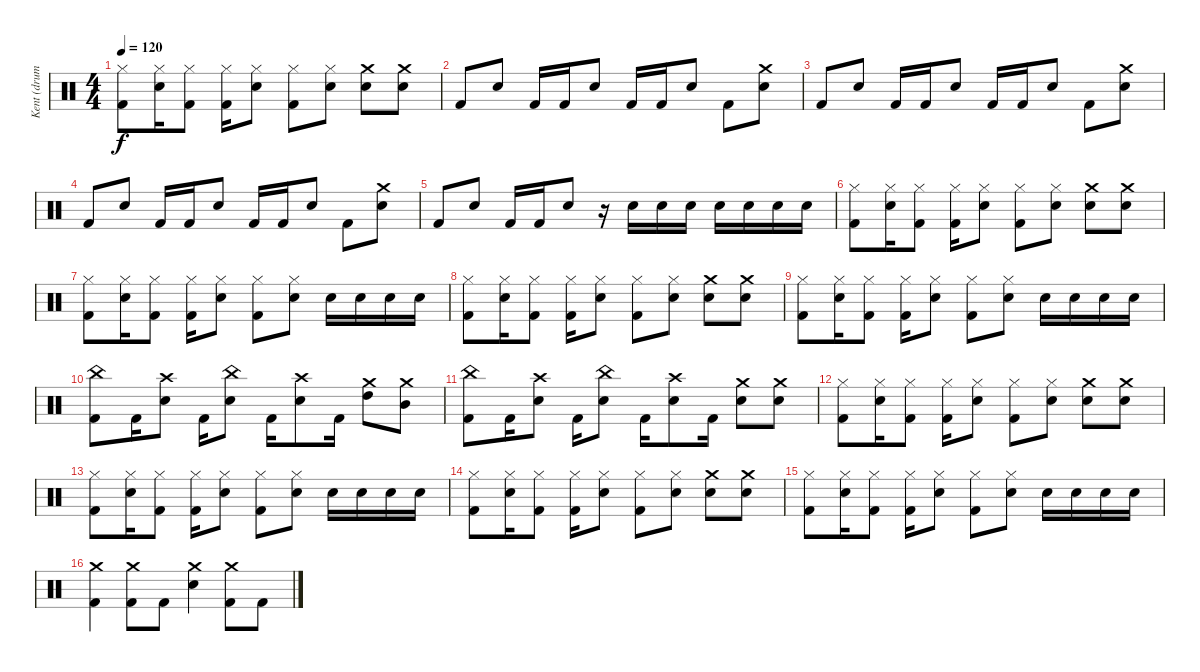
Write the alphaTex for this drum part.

\track ("Kent (drums)" "Kent (drum") {instrument percussion}
\staff {score}
\articulation defaults
\ts (4 4)
\tempo 120
\clef neutral
\ks c
("Hi-Hat (closed)" "Kick (hit) 2").8{dy f} ("Hi-Hat (closed)" "Snare (hit) 2").16 ("Hi-Hat (closed)" "Kick (hit) 2").8 ("Hi-Hat (closed)" "Kick (hit) 2").16 ("Hi-Hat (closed)" "Snare (hit) 2").8 ("Hi-Hat (closed)" "Kick (hit) 2").8 ("Hi-Hat (closed)" "Snare (hit) 2").8 ("Crash medium (hit)" "Snare (hit) 2").8 ("Crash medium (hit)" "Snare (hit) 2").8 |
"Kick (hit) 2".8 "Snare (hit) 2".8 "Kick (hit) 2".16 "Kick (hit) 2".16 "Snare (hit) 2".8 "Kick (hit) 2".16 "Kick (hit) 2".16 "Snare (hit) 2".8 "Kick (hit) 2".8 ("Crash medium (hit)" "Snare (hit) 2").8 |
"Kick (hit) 2".8 "Snare (hit) 2".8 "Kick (hit) 2".16 "Kick (hit) 2".16 "Snare (hit) 2".8 "Kick (hit) 2".16 "Kick (hit) 2".16 "Snare (hit) 2".8 "Kick (hit) 2".8 ("Crash medium (hit)" "Snare (hit) 2").8 |
"Kick (hit) 2".8 "Snare (hit) 2".8 "Kick (hit) 2".16 "Kick (hit) 2".16 "Snare (hit) 2".8 "Kick (hit) 2".16 "Kick (hit) 2".16 "Snare (hit) 2".8 "Kick (hit) 2".8 ("Crash medium (hit)" "Snare (hit) 2").8 |
"Kick (hit) 2".8 "Snare (hit) 2".8 "Kick (hit) 2".16 "Kick (hit) 2".16 "Snare (hit) 2".8 r.16 "Snare (hit) 2".16 "Snare (hit) 2".16 "Snare (hit) 2".16 "Snare (hit) 2".16 "Snare (hit) 2".16 "Snare (hit) 2".16 "Snare (hit) 2".16 |
("Hi-Hat (closed)" "Kick (hit) 2").8 ("Hi-Hat (closed)" "Snare (hit) 2").16 ("Hi-Hat (closed)" "Kick (hit) 2").8 ("Hi-Hat (closed)" "Kick (hit) 2").16 ("Hi-Hat (closed)" "Snare (hit) 2").8 ("Hi-Hat (closed)" "Kick (hit) 2").8 ("Hi-Hat (closed)" "Snare (hit) 2").8 ("Crash medium (hit)" "Snare (hit) 2").8 ("Crash medium (hit)" "Snare (hit) 2").8 |
("Hi-Hat (closed)" "Kick (hit) 2").8 ("Hi-Hat (closed)" "Snare (hit) 2").16 ("Hi-Hat (closed)" "Kick (hit) 2").8 ("Hi-Hat (closed)" "Kick (hit) 2").16 ("Hi-Hat (closed)" "Snare (hit) 2").8 ("Hi-Hat (closed)" "Kick (hit) 2").8 ("Hi-Hat (closed)" "Snare (hit) 2").8 "Snare (hit) 2".16 "Snare (hit) 2".16 "Snare (hit) 2".16 "Snare (hit) 2".16 |
("Hi-Hat (closed)" "Kick (hit) 2").8 ("Hi-Hat (closed)" "Snare (hit) 2").16 ("Hi-Hat (closed)" "Kick (hit) 2").8 ("Hi-Hat (closed)" "Kick (hit) 2").16 ("Hi-Hat (closed)" "Snare (hit) 2").8 ("Hi-Hat (closed)" "Kick (hit) 2").8 ("Hi-Hat (closed)" "Snare (hit) 2").8 ("Crash medium (hit)" "Snare (hit) 2").8 ("Crash medium (hit)" "Snare (hit) 2").8 |
("Hi-Hat (closed)" "Kick (hit) 2").8 ("Hi-Hat (closed)" "Snare (hit) 2").16 ("Hi-Hat (closed)" "Kick (hit) 2").8 ("Hi-Hat (closed)" "Kick (hit) 2").16 ("Hi-Hat (closed)" "Snare (hit) 2").8 ("Hi-Hat (closed)" "Kick (hit) 2").8 ("Hi-Hat (closed)" "Snare (hit) 2").8 "Snare (hit) 2".16 "Snare (hit) 2".16 "Snare (hit) 2".16 "Snare (hit) 2".16 |
("China (hit)" "Kick (hit) 2").8 "Kick (hit) 2".16 ("Crash high (hit)" "Snare (hit) 2").8 "Kick (hit) 2".16 ("China (hit)" "Snare (hit) 2").8 "Kick (hit) 2".16 ("Crash high (hit)" "Snare (hit) 2").8 "Kick (hit) 2".16 ("Crash medium (hit)" "High Tom (hit)").8 ("Crash medium (hit)" "Mid Tom (hit)").8 |
("China (hit)" "Kick (hit) 2").8 "Kick (hit) 2".16 ("Crash high (hit)" "Snare (hit) 2").8 "Kick (hit) 2".16 ("China (hit)" "Snare (hit) 2").8 "Kick (hit) 2".16 ("Crash high (hit)" "Snare (hit) 2").8 "Kick (hit) 2".16 ("Crash medium (hit)" "Snare (hit) 2").8 ("Crash medium (hit)" "Snare (hit) 2").8 |
("Hi-Hat (closed)" "Kick (hit) 2").8 ("Hi-Hat (closed)" "Snare (hit) 2").16 ("Hi-Hat (closed)" "Kick (hit) 2").8 ("Hi-Hat (closed)" "Kick (hit) 2").16 ("Hi-Hat (closed)" "Snare (hit) 2").8 ("Hi-Hat (closed)" "Kick (hit) 2").8 ("Hi-Hat (closed)" "Snare (hit) 2").8 ("Crash medium (hit)" "Snare (hit) 2").8 ("Crash medium (hit)" "Snare (hit) 2").8 |
("Hi-Hat (closed)" "Kick (hit) 2").8 ("Hi-Hat (closed)" "Snare (hit) 2").16 ("Hi-Hat (closed)" "Kick (hit) 2").8 ("Hi-Hat (closed)" "Kick (hit) 2").16 ("Hi-Hat (closed)" "Snare (hit) 2").8 ("Hi-Hat (closed)" "Kick (hit) 2").8 ("Hi-Hat (closed)" "Snare (hit) 2").8 "Snare (hit) 2".16 "Snare (hit) 2".16 "Snare (hit) 2".16 "Snare (hit) 2".16 |
("Hi-Hat (closed)" "Kick (hit) 2").8 ("Hi-Hat (closed)" "Snare (hit) 2").16 ("Hi-Hat (closed)" "Kick (hit) 2").8 ("Hi-Hat (closed)" "Kick (hit) 2").16 ("Hi-Hat (closed)" "Snare (hit) 2").8 ("Hi-Hat (closed)" "Kick (hit) 2").8 ("Hi-Hat (closed)" "Snare (hit) 2").8 ("Crash medium (hit)" "Snare (hit) 2").8 ("Crash medium (hit)" "Snare (hit) 2").8 |
("Hi-Hat (closed)" "Kick (hit) 2").8 ("Hi-Hat (closed)" "Snare (hit) 2").16 ("Hi-Hat (closed)" "Kick (hit) 2").8 ("Hi-Hat (closed)" "Kick (hit) 2").16 ("Hi-Hat (closed)" "Snare (hit) 2").8 ("Hi-Hat (closed)" "Kick (hit) 2").8 ("Hi-Hat (closed)" "Snare (hit) 2").8 "Snare (hit) 2".16 "Snare (hit) 2".16 "Snare (hit) 2".16 "Snare (hit) 2".16 |
("Crash medium (hit)" "Kick (hit) 2").4 ("Crash medium (hit)" "Kick (hit) 2").8 "Kick (hit) 2".8 ("Crash medium (hit)" "Snare (hit) 2").4 ("Crash medium (hit)" "Kick (hit) 2").8 "Kick (hit) 2".8
